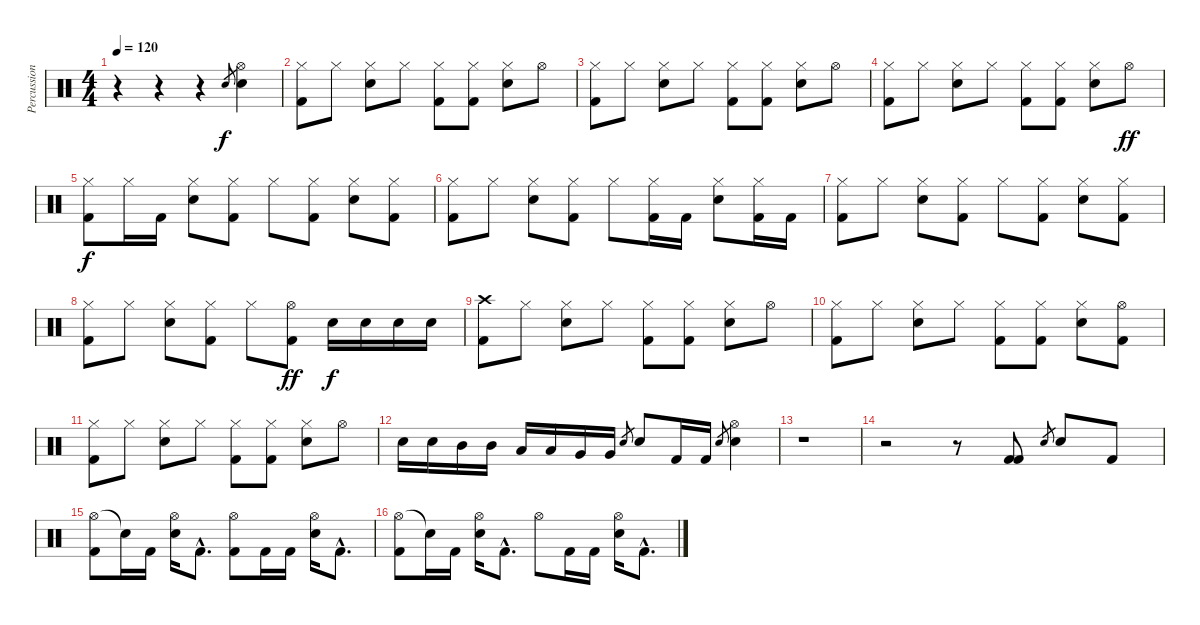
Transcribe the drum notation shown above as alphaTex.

\track ("Percussion" "Percussion") {instrument percussion}
\staff {score}
\articulation defaults
\ts (4 4)
\tempo 120
\clef neutral
\ks c
r.4{dy f} r.4 r.4 "Snare (hit) 2".8{gr} ("Snare (hit) 2" "Hi-Hat (open)").4 |
("Kick (hit) 2" "Hi-Hat (closed)").8 "Hi-Hat (closed)".8 ("Snare (hit) 2" "Hi-Hat (closed)").8 "Hi-Hat (closed)".8 ("Kick (hit) 2" "Hi-Hat (closed)").8 ("Kick (hit) 2" "Hi-Hat (closed)").8 ("Snare (hit) 2" "Hi-Hat (closed)").8 "Hi-Hat (open)".8 |
("Kick (hit) 2" "Hi-Hat (closed)").8 "Hi-Hat (closed)".8 ("Snare (hit) 2" "Hi-Hat (closed)").8 "Hi-Hat (closed)".8 ("Kick (hit) 2" "Hi-Hat (closed)").8 ("Kick (hit) 2" "Hi-Hat (closed)").8 ("Snare (hit) 2" "Hi-Hat (closed)").8 "Hi-Hat (open)".8 |
("Kick (hit) 2" "Hi-Hat (closed)").8 "Hi-Hat (closed)".8 ("Snare (hit) 2" "Hi-Hat (closed)").8 "Hi-Hat (closed)".8 ("Kick (hit) 2" "Hi-Hat (closed)").8 ("Kick (hit) 2" "Hi-Hat (closed)").8 ("Snare (hit) 2" "Hi-Hat (closed)").8 "Hi-Hat (open)".8{dy ff} |
("Kick (hit) 2" "Hi-Hat (closed)").8{dy f} "Hi-Hat (closed)".16 "Kick (hit) 2".16 ("Snare (hit) 2" "Hi-Hat (closed)").8 ("Kick (hit) 2" "Hi-Hat (closed)").8 "Hi-Hat (closed)".8 ("Kick (hit) 2" "Hi-Hat (closed)").8 ("Snare (hit) 2" "Hi-Hat (closed)").8 ("Kick (hit) 2" "Hi-Hat (closed)").8 |
("Kick (hit) 2" "Hi-Hat (closed)").8 "Hi-Hat (closed)".8 ("Snare (hit) 2" "Hi-Hat (closed)").8 ("Kick (hit) 2" "Hi-Hat (closed)").8 "Hi-Hat (closed)".8 ("Kick (hit) 2" "Hi-Hat (closed)").16 "Kick (hit) 2".16 ("Snare (hit) 2" "Hi-Hat (closed)").8 ("Kick (hit) 2" "Hi-Hat (closed)").16 "Kick (hit) 2".16 |
("Kick (hit) 2" "Hi-Hat (closed)").8 "Hi-Hat (closed)".8 ("Snare (hit) 2" "Hi-Hat (closed)").8 ("Kick (hit) 2" "Hi-Hat (closed)").8 "Hi-Hat (closed)".8 ("Kick (hit) 2" "Hi-Hat (closed)").8 ("Snare (hit) 2" "Hi-Hat (closed)").8 ("Kick (hit) 2" "Hi-Hat (closed)").8 |
("Kick (hit) 2" "Hi-Hat (closed)").8 "Hi-Hat (closed)".8 ("Snare (hit) 2" "Hi-Hat (closed)").8 ("Kick (hit) 2" "Hi-Hat (closed)").8 "Hi-Hat (closed)".8 ("Kick (hit) 2" "Hi-Hat (open)").8{dy ff} "Snare (hit) 2".16{dy f} "Snare (hit) 2".16 "Snare (hit) 2".16 "Snare (hit) 2".16 |
("Kick (hit) 2" "Crash high (hit)").8 "Hi-Hat (closed)".8 ("Snare (hit) 2" "Hi-Hat (closed)").8 "Hi-Hat (closed)".8 ("Kick (hit) 2" "Hi-Hat (closed)").8 ("Kick (hit) 2" "Hi-Hat (closed)").8 ("Snare (hit) 2" "Hi-Hat (closed)").8 "Hi-Hat (open)".8 |
("Kick (hit) 2" "Hi-Hat (closed)").8 "Hi-Hat (closed)".8 ("Snare (hit) 2" "Hi-Hat (closed)").8 "Hi-Hat (closed)".8 ("Kick (hit) 2" "Hi-Hat (closed)").8 ("Kick (hit) 2" "Hi-Hat (closed)").8 ("Snare (hit) 2" "Hi-Hat (closed)").8 ("Kick (hit) 2" "Hi-Hat (open)").8 |
("Kick (hit) 2" "Hi-Hat (closed)").8 "Hi-Hat (closed)".8 ("Snare (hit) 2" "Hi-Hat (closed)").8 "Hi-Hat (closed)".8 ("Kick (hit) 2" "Hi-Hat (closed)").8 ("Kick (hit) 2" "Hi-Hat (closed)").8 ("Snare (hit) 2" "Hi-Hat (closed)").8 "Hi-Hat (open)".8 |
"Snare (hit) 2".16 "Snare (hit) 2".16 "Mid Tom (hit)".16 "Mid Tom (hit)".16 "Low Tom (hit)".16 "Low Tom (hit)".16 "Very Low Tom (hit)".16 "Very Low Tom (hit)".16 "Snare (hit) 2".8{gr} "Snare (hit) 2".8 "Kick (hit) 2".16 "Kick (hit) 2".16 "Snare (hit) 2".8{gr} ("Snare (hit) 2" "Hi-Hat (open)").4 |
r.1 |
r.2 r.8 ("Kick (hit) 2" "Kick (hit) 2").8 "Snare (hit) 2".8{gr} "Snare (hit) 2".8 "Kick (hit) 2".8 |
("Hi-Hat (open)" "Kick (hit) 2").8 "Snare (hit)"{t}.16 "Kick (hit) 2".16 ("Hi-Hat (open)" "Snare (hit) 2").16 "Kick (hit) 2"{hac}.8{d} ("Hi-Hat (open)" "Kick (hit) 2").8 "Kick (hit) 2".16 "Kick (hit) 2".16 ("Hi-Hat (open)" "Snare (hit) 2").16 "Kick (hit) 2"{hac}.8{d} |
("Hi-Hat (open)" "Kick (hit) 2").8 "Snare (hit)"{t}.16 "Kick (hit) 2".16 ("Hi-Hat (open)" "Snare (hit) 2").16 "Kick (hit) 2"{hac}.8{d} "Hi-Hat (open)".8 "Kick (hit) 2".16 "Kick (hit) 2".16 ("Hi-Hat (open)" "Snare (hit) 2").16 "Kick (hit) 2"{hac}.8{d}
